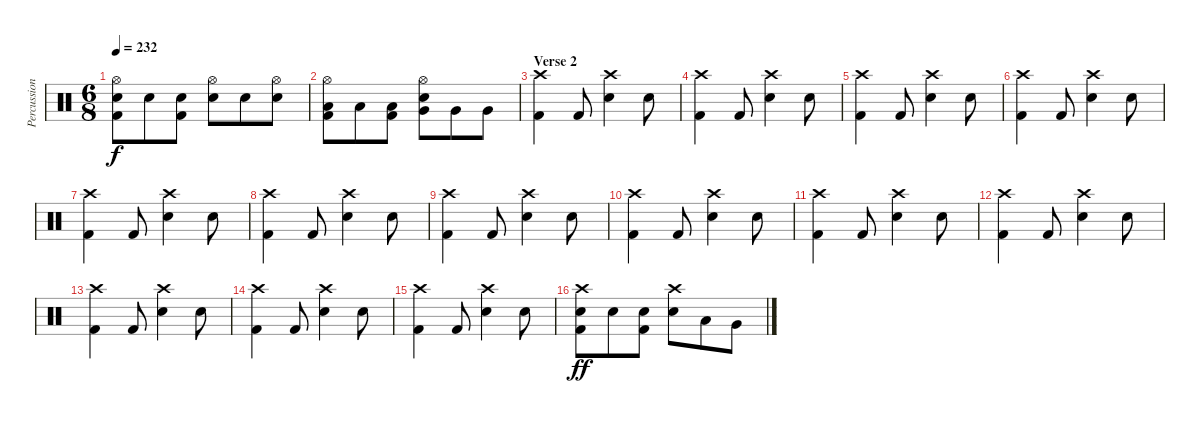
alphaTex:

\track ("Percussion" "Percussion") {instrument percussion}
\staff {score}
\articulation defaults
\ts (6 8)
\tempo 232
\clef neutral
\ks c
("Hi-Hat (open)" "Electric Snare (hit)" "Kick (hit) 2").8{dy f} "Electric Snare (hit)".8 ("Electric Snare (hit)" "Kick (hit) 2").8 ("Hi-Hat (open)" "Electric Snare (hit)").8 "Electric Snare (hit)".8 ("Hi-Hat (open)" "Electric Snare (hit)").8 |
("Hi-Hat (open)" "Low Tom (hit)" "Kick (hit) 2").8 "Low Tom (hit)".8 ("Low Tom (hit)" "Kick (hit) 2").8 ("Hi-Hat (open)" "Electric Snare (hit)" "Very Low Tom (hit)").8 "Very Low Tom (hit)".8 "Very Low Tom (hit)".8 |
\section ("" "Verse 2")
("Crash high (hit)" "Kick (hit) 2").4 "Kick (hit) 2".8 ("Crash high (hit)" "Electric Snare (hit)").4 "Electric Snare (hit)".8 |
("Crash high (hit)" "Kick (hit) 2").4 "Kick (hit) 2".8 ("Crash high (hit)" "Electric Snare (hit)").4 "Electric Snare (hit)".8 |
("Crash high (hit)" "Kick (hit) 2").4 "Kick (hit) 2".8 ("Crash high (hit)" "Electric Snare (hit)").4 "Electric Snare (hit)".8 |
("Crash high (hit)" "Kick (hit) 2").4 "Kick (hit) 2".8 ("Crash high (hit)" "Electric Snare (hit)").4 "Electric Snare (hit)".8 |
("Crash high (hit)" "Kick (hit) 2").4 "Kick (hit) 2".8 ("Crash high (hit)" "Electric Snare (hit)").4 "Electric Snare (hit)".8 |
("Crash high (hit)" "Kick (hit) 2").4 "Kick (hit) 2".8 ("Crash high (hit)" "Electric Snare (hit)").4 "Electric Snare (hit)".8 |
("Crash high (hit)" "Kick (hit) 2").4 "Kick (hit) 2".8 ("Crash high (hit)" "Electric Snare (hit)").4 "Electric Snare (hit)".8 |
("Crash high (hit)" "Kick (hit) 2").4 "Kick (hit) 2".8 ("Crash high (hit)" "Electric Snare (hit)").4 "Electric Snare (hit)".8 |
("Crash high (hit)" "Kick (hit) 2").4 "Kick (hit) 2".8 ("Crash high (hit)" "Electric Snare (hit)").4 "Electric Snare (hit)".8 |
("Crash high (hit)" "Kick (hit) 2").4 "Kick (hit) 2".8 ("Crash high (hit)" "Electric Snare (hit)").4 "Electric Snare (hit)".8 |
("Crash high (hit)" "Kick (hit) 2").4 "Kick (hit) 2".8 ("Crash high (hit)" "Electric Snare (hit)").4 "Electric Snare (hit)".8 |
("Crash high (hit)" "Kick (hit) 2").4 "Kick (hit) 2".8 ("Crash high (hit)" "Electric Snare (hit)").4 "Electric Snare (hit)".8 |
("Crash high (hit)" "Kick (hit) 2").4 "Kick (hit) 2".8 ("Crash high (hit)" "Electric Snare (hit)").4 "Electric Snare (hit)".8 |
("Crash high (hit)" "Electric Snare (hit)" "Kick (hit) 2").8{dy ff} "Electric Snare (hit)".8 ("Electric Snare (hit)" "Kick (hit) 2").8 ("Crash high (hit)" "Electric Snare (hit)").8 "Low Tom (hit)".8 "Very Low Tom (hit)".8
